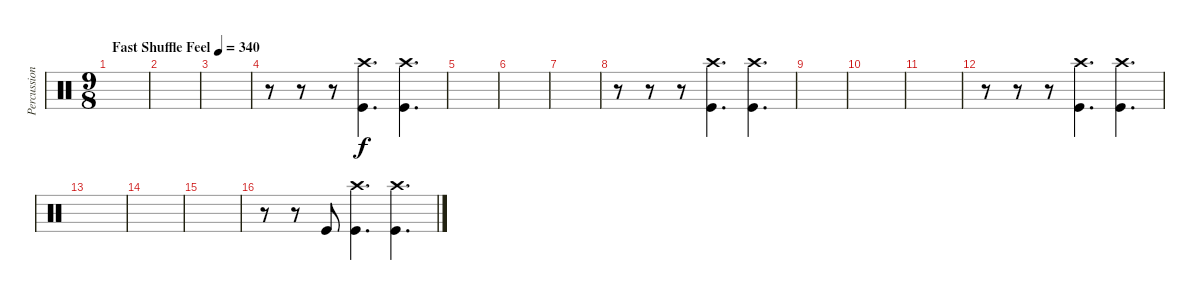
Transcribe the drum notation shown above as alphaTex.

\track ("Percussion" "Percussion") {instrument percussion}
\staff {score}
\articulation defaults
\ts (9 8)
\tempo (340 "Fast Shuffle Feel")
\clef neutral
\ks c
|
|
|
r.8 r.8 r.8 ("Crash high (hit)" "Kick (hit)").4{d} ("Crash high (hit)" "Kick (hit)").4{d} |
|
|
|
r.8 r.8 r.8 ("Crash high (hit)" "Kick (hit)").4{d} ("Crash high (hit)" "Kick (hit)").4{d} |
|
|
|
r.8 r.8 r.8 ("Crash high (hit)" "Kick (hit)").4{d} ("Crash high (hit)" "Kick (hit)").4{d} |
|
|
|
r.8 r.8 "Kick (hit)".8 ("Crash high (hit)" "Kick (hit)").4{d} ("Crash high (hit)" "Kick (hit)").4{d}
